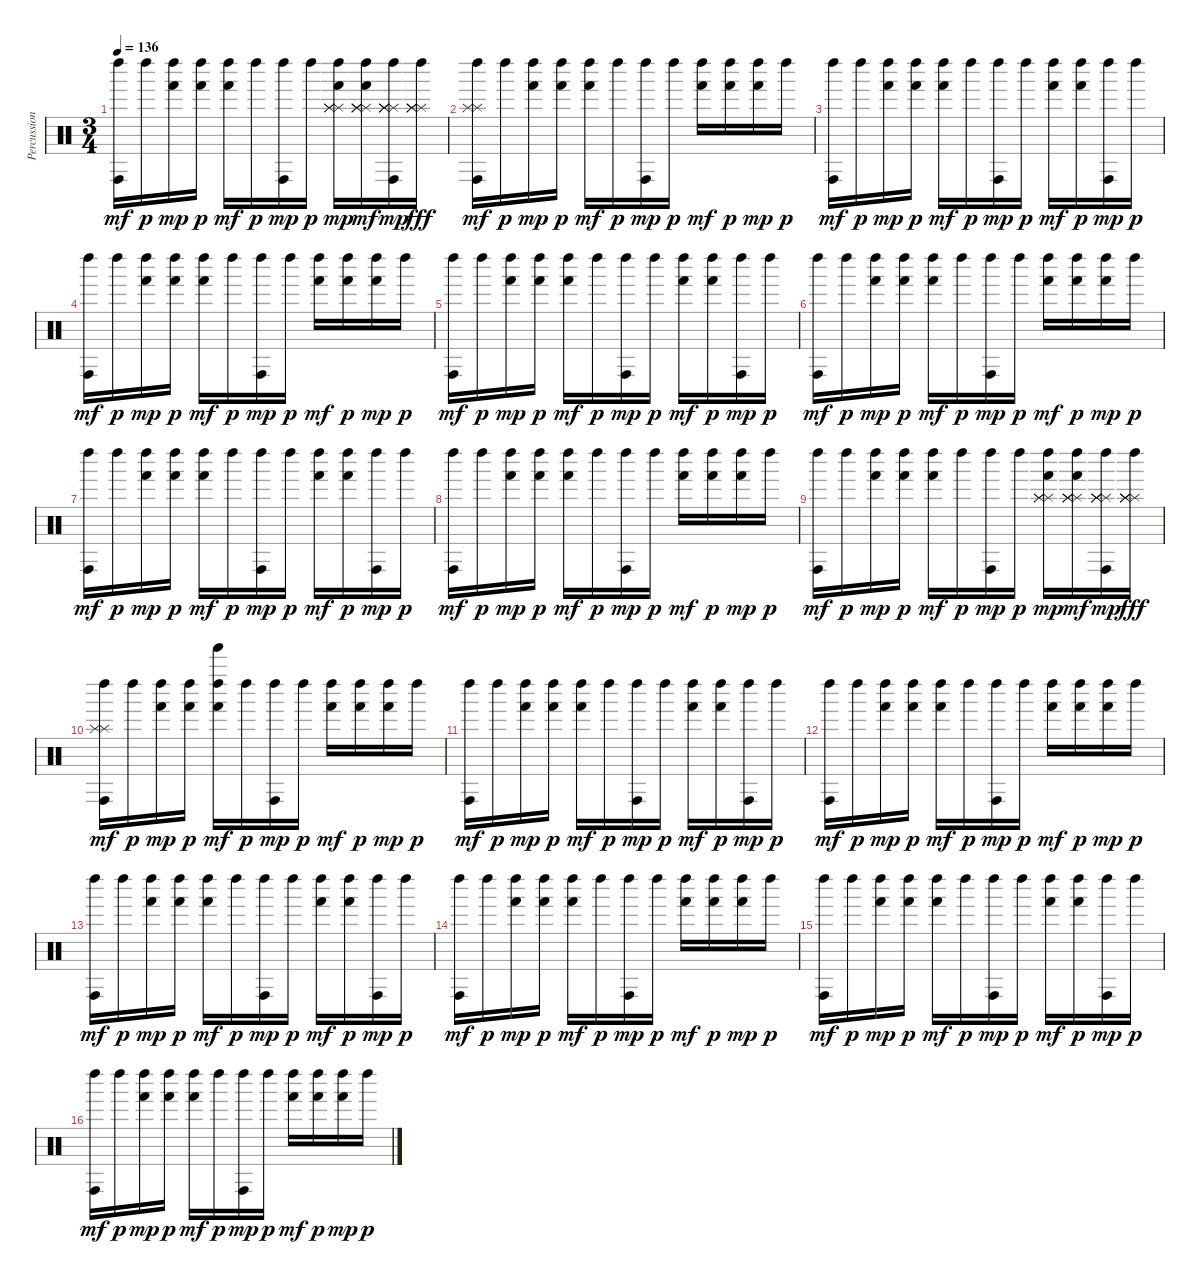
\track ("Percussion" "Percussion") {instrument percussion}
\staff {score}
\articulation defaults
\ts (3 4)
\tempo 136
\clef neutral
\ks c
("Conga high (hit)" "Left Maraca (hit)").16{dy mf} "Left Maraca (hit)".16{dy p} ("Hand (hit)" "Left Maraca (hit)").16{dy mp} ("Hand (hit)" "Left Maraca (hit)").16{dy p} ("Hand (hit)" "Left Maraca (hit)").16{dy mf} "Left Maraca (hit)".16{dy p} ("Conga high (hit)" "Left Maraca (hit)").16{dy mp} "Left Maraca (hit)".16{dy p} ("Hand (hit)" "Splash (hit)" "Left Maraca (hit)" "Splash (hit)" "Splash (hit)").16{dy mp} ("Splash (hit)" "Hand (hit)" "Splash (hit)" "Left Maraca (hit)" "Splash (hit)" "Splash (hit)").16{dy mf} ("Splash (hit)" "Conga high (hit)" "Splash (hit)" "Left Maraca (hit)" "Splash (hit)" "Splash (hit)").16{dy mp} ("Splash (hit)" "Splash (hit)" "Left Maraca (hit)" "Splash (hit)" "Splash (hit)").16{dy fff} |
("Splash (hit)" "Splash (hit)" "Conga high (hit)" "Left Maraca (hit)").16{dy mf} "Left Maraca (hit)".16{dy p} ("Hand (hit)" "Left Maraca (hit)").16{dy mp} ("Hand (hit)" "Left Maraca (hit)").16{dy p} ("Hand (hit)" "Left Maraca (hit)").16{dy mf} "Left Maraca (hit)".16{dy p} ("Conga high (hit)" "Left Maraca (hit)").16{dy mp} "Left Maraca (hit)".16{dy p} ("Hand (hit)" "Left Maraca (hit)").16{dy mf} ("Hand (hit)" "Left Maraca (hit)").16{dy p} ("Hand (hit)" "Left Maraca (hit)").16{dy mp} "Left Maraca (hit)".16{dy p} |
("Conga high (hit)" "Left Maraca (hit)").16{dy mf} "Left Maraca (hit)".16{dy p} ("Hand (hit)" "Left Maraca (hit)").16{dy mp} ("Hand (hit)" "Left Maraca (hit)").16{dy p} ("Hand (hit)" "Left Maraca (hit)").16{dy mf} "Left Maraca (hit)".16{dy p} ("Conga high (hit)" "Left Maraca (hit)").16{dy mp} "Left Maraca (hit)".16{dy p} ("Hand (hit)" "Left Maraca (hit)").16{dy mf} ("Hand (hit)" "Left Maraca (hit)").16{dy p} ("Conga high (hit)" "Left Maraca (hit)").16{dy mp} "Left Maraca (hit)".16{dy p} |
("Conga high (hit)" "Left Maraca (hit)").16{dy mf} "Left Maraca (hit)".16{dy p} ("Hand (hit)" "Left Maraca (hit)").16{dy mp} ("Hand (hit)" "Left Maraca (hit)").16{dy p} ("Hand (hit)" "Left Maraca (hit)").16{dy mf} "Left Maraca (hit)".16{dy p} ("Conga high (hit)" "Left Maraca (hit)").16{dy mp} "Left Maraca (hit)".16{dy p} ("Hand (hit)" "Left Maraca (hit)").16{dy mf} ("Hand (hit)" "Left Maraca (hit)").16{dy p} ("Hand (hit)" "Left Maraca (hit)").16{dy mp} "Left Maraca (hit)".16{dy p} |
("Conga high (hit)" "Left Maraca (hit)").16{dy mf} "Left Maraca (hit)".16{dy p} ("Hand (hit)" "Left Maraca (hit)").16{dy mp} ("Hand (hit)" "Left Maraca (hit)").16{dy p} ("Hand (hit)" "Left Maraca (hit)").16{dy mf} "Left Maraca (hit)".16{dy p} ("Conga high (hit)" "Left Maraca (hit)").16{dy mp} "Left Maraca (hit)".16{dy p} ("Hand (hit)" "Left Maraca (hit)").16{dy mf} ("Hand (hit)" "Left Maraca (hit)").16{dy p} ("Conga high (hit)" "Left Maraca (hit)").16{dy mp} "Left Maraca (hit)".16{dy p} |
("Conga high (hit)" "Left Maraca (hit)").16{dy mf} "Left Maraca (hit)".16{dy p} ("Hand (hit)" "Left Maraca (hit)").16{dy mp} ("Hand (hit)" "Left Maraca (hit)").16{dy p} ("Hand (hit)" "Left Maraca (hit)").16{dy mf} "Left Maraca (hit)".16{dy p} ("Conga high (hit)" "Left Maraca (hit)").16{dy mp} "Left Maraca (hit)".16{dy p} ("Hand (hit)" "Left Maraca (hit)").16{dy mf} ("Hand (hit)" "Left Maraca (hit)").16{dy p} ("Hand (hit)" "Left Maraca (hit)").16{dy mp} "Left Maraca (hit)".16{dy p} |
("Conga high (hit)" "Left Maraca (hit)").16{dy mf} "Left Maraca (hit)".16{dy p} ("Hand (hit)" "Left Maraca (hit)").16{dy mp} ("Hand (hit)" "Left Maraca (hit)").16{dy p} ("Hand (hit)" "Left Maraca (hit)").16{dy mf} "Left Maraca (hit)".16{dy p} ("Conga high (hit)" "Left Maraca (hit)").16{dy mp} "Left Maraca (hit)".16{dy p} ("Hand (hit)" "Left Maraca (hit)").16{dy mf} ("Hand (hit)" "Left Maraca (hit)").16{dy p} ("Conga high (hit)" "Left Maraca (hit)").16{dy mp} "Left Maraca (hit)".16{dy p} |
("Conga high (hit)" "Left Maraca (hit)").16{dy mf} "Left Maraca (hit)".16{dy p} ("Hand (hit)" "Left Maraca (hit)").16{dy mp} ("Hand (hit)" "Left Maraca (hit)").16{dy p} ("Hand (hit)" "Left Maraca (hit)").16{dy mf} "Left Maraca (hit)".16{dy p} ("Conga high (hit)" "Left Maraca (hit)").16{dy mp} "Left Maraca (hit)".16{dy p} ("Hand (hit)" "Left Maraca (hit)").16{dy mf} ("Hand (hit)" "Left Maraca (hit)").16{dy p} ("Hand (hit)" "Left Maraca (hit)").16{dy mp} "Left Maraca (hit)".16{dy p} |
("Conga high (hit)" "Left Maraca (hit)").16{dy mf} "Left Maraca (hit)".16{dy p} ("Hand (hit)" "Left Maraca (hit)").16{dy mp} ("Hand (hit)" "Left Maraca (hit)").16{dy p} ("Hand (hit)" "Left Maraca (hit)").16{dy mf} "Left Maraca (hit)".16{dy p} ("Conga high (hit)" "Left Maraca (hit)").16{dy mp} "Left Maraca (hit)".16{dy p} ("Hand (hit)" "Splash (hit)" "Left Maraca (hit)" "Splash (hit)" "Splash (hit)").16{dy mp} ("Splash (hit)" "Hand (hit)" "Splash (hit)" "Left Maraca (hit)" "Splash (hit)" "Splash (hit)").16{dy mf} ("Splash (hit)" "Conga high (hit)" "Splash (hit)" "Left Maraca (hit)" "Splash (hit)" "Splash (hit)").16{dy mp} ("Splash (hit)" "Splash (hit)" "Left Maraca (hit)" "Splash (hit)" "Splash (hit)").16{dy fff} |
("Splash (hit)" "Splash (hit)" "Conga high (hit)" "Left Maraca (hit)").16{dy mf} "Left Maraca (hit)".16{dy p} ("Hand (hit)" "Left Maraca (hit)").16{dy mp} ("Hand (hit)" "Left Maraca (hit)").16{dy p} ("Hand (hit)" "Tinkle Bell (hit)" "Left Maraca (hit)").16{dy mf} "Left Maraca (hit)".16{dy p} ("Conga high (hit)" "Left Maraca (hit)").16{dy mp} "Left Maraca (hit)".16{dy p} ("Hand (hit)" "Left Maraca (hit)").16{dy mf} ("Hand (hit)" "Left Maraca (hit)").16{dy p} ("Hand (hit)" "Left Maraca (hit)").16{dy mp} "Left Maraca (hit)".16{dy p} |
("Conga high (hit)" "Left Maraca (hit)").16{dy mf} "Left Maraca (hit)".16{dy p} ("Hand (hit)" "Left Maraca (hit)").16{dy mp} ("Hand (hit)" "Left Maraca (hit)").16{dy p} ("Hand (hit)" "Left Maraca (hit)").16{dy mf} "Left Maraca (hit)".16{dy p} ("Conga high (hit)" "Left Maraca (hit)").16{dy mp} "Left Maraca (hit)".16{dy p} ("Hand (hit)" "Left Maraca (hit)").16{dy mf} ("Hand (hit)" "Left Maraca (hit)").16{dy p} ("Conga high (hit)" "Left Maraca (hit)").16{dy mp} "Left Maraca (hit)".16{dy p} |
("Conga high (hit)" "Left Maraca (hit)").16{dy mf} "Left Maraca (hit)".16{dy p} ("Hand (hit)" "Left Maraca (hit)").16{dy mp} ("Hand (hit)" "Left Maraca (hit)").16{dy p} ("Hand (hit)" "Left Maraca (hit)").16{dy mf} "Left Maraca (hit)".16{dy p} ("Conga high (hit)" "Left Maraca (hit)").16{dy mp} "Left Maraca (hit)".16{dy p} ("Hand (hit)" "Left Maraca (hit)").16{dy mf} ("Hand (hit)" "Left Maraca (hit)").16{dy p} ("Hand (hit)" "Left Maraca (hit)").16{dy mp} "Left Maraca (hit)".16{dy p} |
("Conga high (hit)" "Left Maraca (hit)").16{dy mf} "Left Maraca (hit)".16{dy p} ("Hand (hit)" "Left Maraca (hit)").16{dy mp} ("Hand (hit)" "Left Maraca (hit)").16{dy p} ("Hand (hit)" "Left Maraca (hit)").16{dy mf} "Left Maraca (hit)".16{dy p} ("Conga high (hit)" "Left Maraca (hit)").16{dy mp} "Left Maraca (hit)".16{dy p} ("Hand (hit)" "Left Maraca (hit)").16{dy mf} ("Hand (hit)" "Left Maraca (hit)").16{dy p} ("Conga high (hit)" "Left Maraca (hit)").16{dy mp} "Left Maraca (hit)".16{dy p} |
("Conga high (hit)" "Left Maraca (hit)").16{dy mf} "Left Maraca (hit)".16{dy p} ("Hand (hit)" "Left Maraca (hit)").16{dy mp} ("Hand (hit)" "Left Maraca (hit)").16{dy p} ("Hand (hit)" "Left Maraca (hit)").16{dy mf} "Left Maraca (hit)".16{dy p} ("Conga high (hit)" "Left Maraca (hit)").16{dy mp} "Left Maraca (hit)".16{dy p} ("Hand (hit)" "Left Maraca (hit)").16{dy mf} ("Hand (hit)" "Left Maraca (hit)").16{dy p} ("Hand (hit)" "Left Maraca (hit)").16{dy mp} "Left Maraca (hit)".16{dy p} |
("Conga high (hit)" "Left Maraca (hit)").16{dy mf} "Left Maraca (hit)".16{dy p} ("Hand (hit)" "Left Maraca (hit)").16{dy mp} ("Hand (hit)" "Left Maraca (hit)").16{dy p} ("Hand (hit)" "Left Maraca (hit)").16{dy mf} "Left Maraca (hit)".16{dy p} ("Conga high (hit)" "Left Maraca (hit)").16{dy mp} "Left Maraca (hit)".16{dy p} ("Hand (hit)" "Left Maraca (hit)").16{dy mf} ("Hand (hit)" "Left Maraca (hit)").16{dy p} ("Conga high (hit)" "Left Maraca (hit)").16{dy mp} "Left Maraca (hit)".16{dy p} |
("Conga high (hit)" "Left Maraca (hit)").16{dy mf} "Left Maraca (hit)".16{dy p} ("Hand (hit)" "Left Maraca (hit)").16{dy mp} ("Hand (hit)" "Left Maraca (hit)").16{dy p} ("Hand (hit)" "Left Maraca (hit)").16{dy mf} "Left Maraca (hit)".16{dy p} ("Conga high (hit)" "Left Maraca (hit)").16{dy mp} "Left Maraca (hit)".16{dy p} ("Hand (hit)" "Left Maraca (hit)").16{dy mf} ("Hand (hit)" "Left Maraca (hit)").16{dy p} ("Hand (hit)" "Left Maraca (hit)").16{dy mp} "Left Maraca (hit)".16{dy p}
